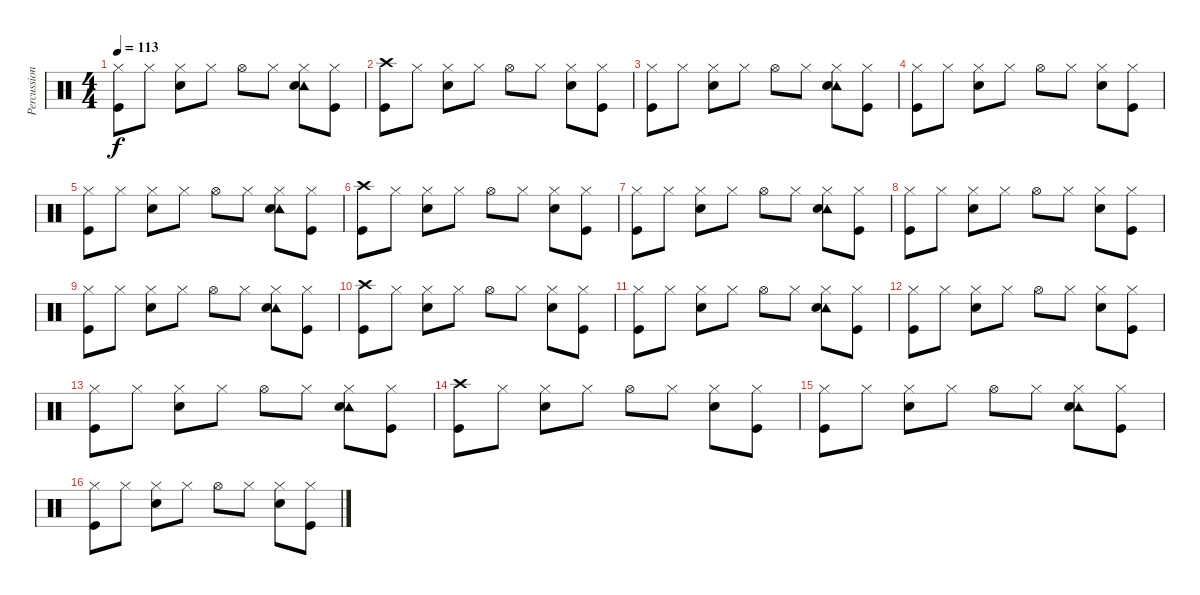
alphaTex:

\track ("Percussion" "Percussion") {instrument percussion}
\staff {score}
\articulation defaults
\ts (4 4)
\tempo 113
\clef neutral
\ks c
("Hi-Hat (closed)" "Kick (hit)").8{dy f} "Hi-Hat (closed)".8 ("Hi-Hat (closed)" "Snare (hit) 2").8 "Hi-Hat (closed)".8 "Hi-Hat (open)".8 "Hi-Hat (closed)".8 ("Hi-Hat (closed)" "Tambourine (hit)" "Snare (hit) 2").8 ("Hi-Hat (closed)" "Kick (hit)").8 |
("Crash high (hit)" "Kick (hit)").8 "Hi-Hat (closed)".8 ("Hi-Hat (closed)" "Snare (hit) 2").8 "Hi-Hat (closed)".8 "Hi-Hat (open)".8 "Hi-Hat (closed)".8 ("Hi-Hat (closed)" "Snare (hit) 2").8 ("Hi-Hat (closed)" "Kick (hit)").8 |
("Hi-Hat (closed)" "Kick (hit)").8 "Hi-Hat (closed)".8 ("Hi-Hat (closed)" "Snare (hit) 2").8 "Hi-Hat (closed)".8 "Hi-Hat (open)".8 "Hi-Hat (closed)".8 ("Hi-Hat (closed)" "Tambourine (hit)" "Snare (hit) 2").8 ("Hi-Hat (closed)" "Kick (hit)").8 |
("Hi-Hat (closed)" "Kick (hit)").8 "Hi-Hat (closed)".8 ("Hi-Hat (closed)" "Snare (hit) 2").8 "Hi-Hat (closed)".8 "Hi-Hat (open)".8 "Hi-Hat (closed)".8 ("Hi-Hat (closed)" "Snare (hit) 2").8 ("Hi-Hat (closed)" "Kick (hit)").8 |
("Hi-Hat (closed)" "Kick (hit)").8 "Hi-Hat (closed)".8 ("Hi-Hat (closed)" "Snare (hit) 2").8 "Hi-Hat (closed)".8 "Hi-Hat (open)".8 "Hi-Hat (closed)".8 ("Hi-Hat (closed)" "Tambourine (hit)" "Snare (hit) 2").8 ("Hi-Hat (closed)" "Kick (hit)").8 |
("Crash high (hit)" "Kick (hit)").8 "Hi-Hat (closed)".8 ("Hi-Hat (closed)" "Snare (hit) 2").8 "Hi-Hat (closed)".8 "Hi-Hat (open)".8 "Hi-Hat (closed)".8 ("Hi-Hat (closed)" "Snare (hit) 2").8 ("Hi-Hat (closed)" "Kick (hit)").8 |
("Hi-Hat (closed)" "Kick (hit)").8 "Hi-Hat (closed)".8 ("Hi-Hat (closed)" "Snare (hit) 2").8 "Hi-Hat (closed)".8 "Hi-Hat (open)".8 "Hi-Hat (closed)".8 ("Hi-Hat (closed)" "Tambourine (hit)" "Snare (hit) 2").8 ("Hi-Hat (closed)" "Kick (hit)").8 |
("Hi-Hat (closed)" "Kick (hit)").8 "Hi-Hat (closed)".8 ("Hi-Hat (closed)" "Snare (hit) 2").8 "Hi-Hat (closed)".8 "Hi-Hat (open)".8 "Hi-Hat (closed)".8 ("Hi-Hat (closed)" "Snare (hit) 2").8 ("Hi-Hat (closed)" "Kick (hit)").8 |
("Hi-Hat (closed)" "Kick (hit)").8 "Hi-Hat (closed)".8 ("Hi-Hat (closed)" "Snare (hit) 2").8 "Hi-Hat (closed)".8 "Hi-Hat (open)".8 "Hi-Hat (closed)".8 ("Hi-Hat (closed)" "Tambourine (hit)" "Snare (hit) 2").8 ("Hi-Hat (closed)" "Kick (hit)").8 |
("Crash high (hit)" "Kick (hit)").8 "Hi-Hat (closed)".8 ("Hi-Hat (closed)" "Snare (hit) 2").8 "Hi-Hat (closed)".8 "Hi-Hat (open)".8 "Hi-Hat (closed)".8 ("Hi-Hat (closed)" "Snare (hit) 2").8 ("Hi-Hat (closed)" "Kick (hit)").8 |
("Hi-Hat (closed)" "Kick (hit)").8 "Hi-Hat (closed)".8 ("Hi-Hat (closed)" "Snare (hit) 2").8 "Hi-Hat (closed)".8 "Hi-Hat (open)".8 "Hi-Hat (closed)".8 ("Hi-Hat (closed)" "Tambourine (hit)" "Snare (hit) 2").8 ("Hi-Hat (closed)" "Kick (hit)").8 |
("Hi-Hat (closed)" "Kick (hit)").8 "Hi-Hat (closed)".8 ("Hi-Hat (closed)" "Snare (hit) 2").8 "Hi-Hat (closed)".8 "Hi-Hat (open)".8 "Hi-Hat (closed)".8 ("Hi-Hat (closed)" "Snare (hit) 2").8 ("Hi-Hat (closed)" "Kick (hit)").8 |
("Hi-Hat (closed)" "Kick (hit)").8 "Hi-Hat (closed)".8 ("Hi-Hat (closed)" "Snare (hit) 2").8 "Hi-Hat (closed)".8 "Hi-Hat (open)".8 "Hi-Hat (closed)".8 ("Hi-Hat (closed)" "Tambourine (hit)" "Snare (hit) 2").8 ("Hi-Hat (closed)" "Kick (hit)").8 |
("Crash high (hit)" "Kick (hit)").8 "Hi-Hat (closed)".8 ("Hi-Hat (closed)" "Snare (hit) 2").8 "Hi-Hat (closed)".8 "Hi-Hat (open)".8 "Hi-Hat (closed)".8 ("Hi-Hat (closed)" "Snare (hit) 2").8 ("Hi-Hat (closed)" "Kick (hit)").8 |
("Hi-Hat (closed)" "Kick (hit)").8 "Hi-Hat (closed)".8 ("Hi-Hat (closed)" "Snare (hit) 2").8 "Hi-Hat (closed)".8 "Hi-Hat (open)".8 "Hi-Hat (closed)".8 ("Hi-Hat (closed)" "Tambourine (hit)" "Snare (hit) 2").8 ("Hi-Hat (closed)" "Kick (hit)").8 |
("Hi-Hat (closed)" "Kick (hit)").8 "Hi-Hat (closed)".8 ("Hi-Hat (closed)" "Snare (hit) 2").8 "Hi-Hat (closed)".8 "Hi-Hat (open)".8 "Hi-Hat (closed)".8 ("Hi-Hat (closed)" "Snare (hit) 2").8 ("Hi-Hat (closed)" "Kick (hit)").8
